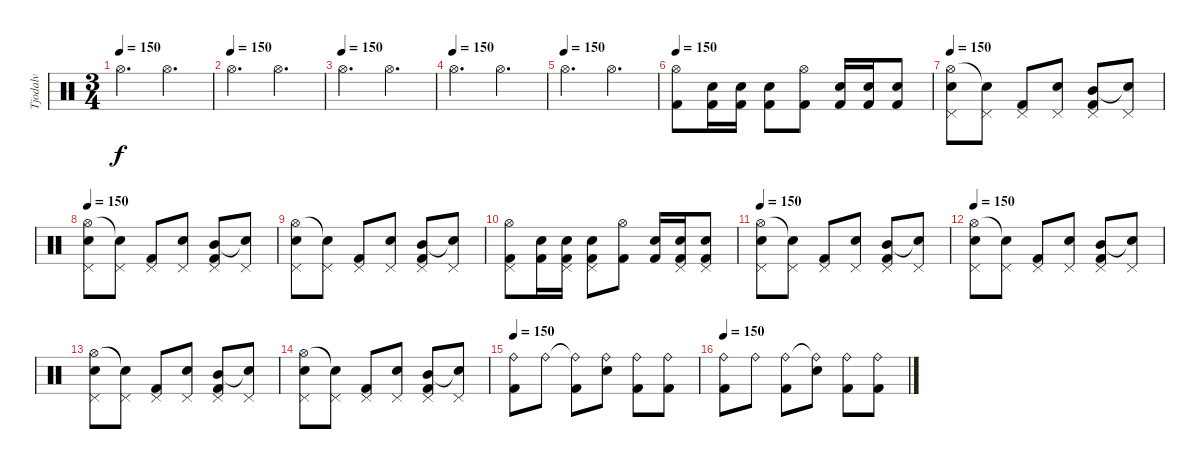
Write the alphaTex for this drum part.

\track ("Tjodalv" "Tjodalv") {instrument percussion}
\staff {score}
\articulation defaults
\ts (3 4)
\tempo 150
\clef neutral
\ks c "Hi-Hat (open)".4{d dy f} "Hi-Hat (open)".4{d}
|
\tempo (150)
"Hi-Hat (open)".4{d} "Hi-Hat (open)".4{d} |
\tempo (150)
"Hi-Hat (open)".4{d} "Hi-Hat (open)".4{d} |
\tempo (150)
"Hi-Hat (open)".4{d} "Hi-Hat (open)".4{d} |
\tempo (150)
"Hi-Hat (open)".4{d} "Hi-Hat (open)".4{d} |
\tempo 150
("Hi-Hat (open)" "Kick (hit) 2").8 ("Snare (hit) 2" "Kick (hit) 2").16 ("Snare (hit) 2" "Kick (hit) 2").16 ("Snare (hit) 2" "Kick (hit) 2").8 ("Hi-Hat (open)" "Kick (hit) 2").8 ("Snare (hit) 2" "Kick (hit) 2").16 ("Snare (hit) 2" "Kick (hit) 2").16 ("Snare (hit) 2" "Kick (hit) 2").8 |
\tempo 150
("Pedal Hi-Hat (hit)" "Hi-Hat (open)" "Snare (hit) 2").8 ("Pedal Hi-Hat (hit)" "Snare (hit)"{t}).8 ("Pedal Hi-Hat (hit)" "Kick (hit) 2").8 ("Pedal Hi-Hat (hit)" "Snare (hit) 2").8 ("Pedal Hi-Hat (hit)" "Mid Tom (hit)" "Kick (hit) 2").8 ("Pedal Hi-Hat (hit)" "Snare (hit)"{t}).8 |
\tempo 150
("Pedal Hi-Hat (hit)" "Hi-Hat (open)" "Snare (hit) 2").8 ("Pedal Hi-Hat (hit)" "Snare (hit)"{t}).8 ("Pedal Hi-Hat (hit)" "Kick (hit) 2").8 ("Pedal Hi-Hat (hit)" "Snare (hit) 2").8 ("Pedal Hi-Hat (hit)" "Mid Tom (hit)" "Kick (hit) 2").8 ("Pedal Hi-Hat (hit)" "Snare (hit)"{t}).8 |
("Pedal Hi-Hat (hit)" "Hi-Hat (open)" "Snare (hit) 2").8 ("Pedal Hi-Hat (hit)" "Snare (hit)"{t}).8 ("Pedal Hi-Hat (hit)" "Kick (hit) 2").8 ("Pedal Hi-Hat (hit)" "Snare (hit) 2").8 ("Pedal Hi-Hat (hit)" "Mid Tom (hit)" "Kick (hit) 2").8 ("Pedal Hi-Hat (hit)" "Snare (hit)"{t}).8 |
("Pedal Hi-Hat (hit)" "Hi-Hat (open)" "Kick (hit) 2").8 ("Snare (hit) 2" "Kick (hit) 2").16 ("Pedal Hi-Hat (hit)" "Snare (hit) 2" "Kick (hit) 2").16 ("Pedal Hi-Hat (hit)" "Snare (hit) 2" "Kick (hit) 2").8 ("Hi-Hat (open)" "Kick (hit) 2").8 ("Snare (hit) 2" "Kick (hit) 2").16 ("Pedal Hi-Hat (hit)" "Snare (hit) 2" "Kick (hit) 2").16 ("Pedal Hi-Hat (hit)" "Snare (hit) 2" "Kick (hit) 2").8 |
\tempo 150
("Pedal Hi-Hat (hit)" "Hi-Hat (open)" "Snare (hit) 2").8 ("Pedal Hi-Hat (hit)" "Snare (hit)"{t}).8 ("Pedal Hi-Hat (hit)" "Kick (hit) 2").8 ("Pedal Hi-Hat (hit)" "Snare (hit) 2").8 ("Pedal Hi-Hat (hit)" "Mid Tom (hit)" "Kick (hit) 2").8 ("Pedal Hi-Hat (hit)" "Snare (hit)"{t}).8 |
\tempo 150
("Pedal Hi-Hat (hit)" "Hi-Hat (open)" "Snare (hit) 2").8 ("Pedal Hi-Hat (hit)" "Snare (hit)"{t}).8 ("Pedal Hi-Hat (hit)" "Kick (hit) 2").8 ("Pedal Hi-Hat (hit)" "Snare (hit) 2").8 ("Pedal Hi-Hat (hit)" "Mid Tom (hit)" "Kick (hit) 2").8 ("Pedal Hi-Hat (hit)" "Snare (hit)"{t}).8 |
("Pedal Hi-Hat (hit)" "Hi-Hat (open)" "Snare (hit) 2").8 ("Pedal Hi-Hat (hit)" "Snare (hit)"{t}).8 ("Pedal Hi-Hat (hit)" "Kick (hit) 2").8 ("Pedal Hi-Hat (hit)" "Snare (hit) 2").8 ("Pedal Hi-Hat (hit)" "Mid Tom (hit)" "Kick (hit) 2").8 ("Pedal Hi-Hat (hit)" "Snare (hit)"{t}).8 |
("Pedal Hi-Hat (hit)" "Hi-Hat (open)" "Snare (hit) 2").8 ("Pedal Hi-Hat (hit)" "Snare (hit)"{t}).8 ("Pedal Hi-Hat (hit)" "Kick (hit) 2").8 ("Pedal Hi-Hat (hit)" "Snare (hit) 2").8 ("Pedal Hi-Hat (hit)" "Mid Tom (hit)" "Kick (hit) 2").8 ("Pedal Hi-Hat (hit)" "Snare (hit)"{t}).8 |
\tempo 150
("Ride (bell)" "Kick (hit) 2").8 "Ride (bell)".8 ("Ride (bell)"{t} "Kick (hit) 2").8 ("Ride (bell)" "Snare (hit) 2").8 ("Ride (bell)" "Kick (hit) 2").8 ("Ride (bell)" "Kick (hit) 2").8 |
\tempo 150
("Ride (bell)" "Kick (hit) 2").8 "Ride (bell)".8 ("Ride (bell)" "Kick (hit) 2").8 ("Ride (bell)"{t} "Snare (hit) 2").8 ("Ride (bell)" "Kick (hit) 2").8 ("Ride (bell)" "Kick (hit) 2").8
